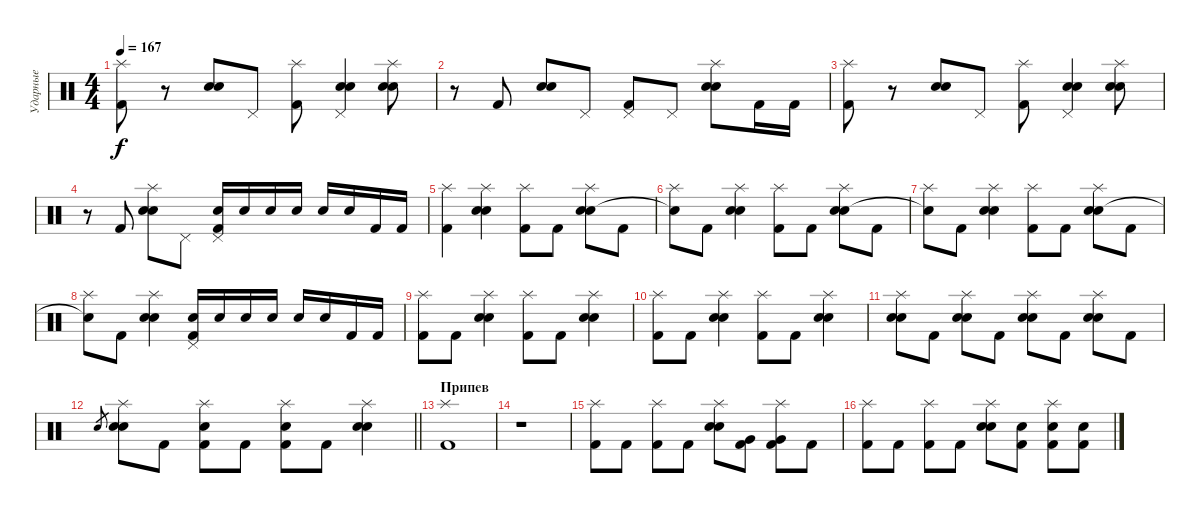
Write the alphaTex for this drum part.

\track ("Ударные" "Ударные") {instrument percussion}
\staff {score}
\articulation defaults
\ts (4 4)
\tempo 167
\clef neutral
\ks c
("Splash (hit)" "Kick (hit) 2").8{dy f} r.8 ("Electric Snare (hit)" "Snare (hit) 2").8 "Pedal Hi-Hat (hit)".8 ("Splash (hit)" "Kick (hit) 2").8 ("Pedal Hi-Hat (hit)" "Electric Snare (hit)" "Snare (hit) 2").4 ("Splash (hit)" "Electric Snare (hit)" "Snare (hit) 2").8 |
r.8 "Kick (hit) 2".8 ("Electric Snare (hit)" "Snare (hit) 2").8 "Pedal Hi-Hat (hit)".8 ("Pedal Hi-Hat (hit)" "Kick (hit) 2").8 "Pedal Hi-Hat (hit)".8 ("Splash (hit)" "Electric Snare (hit)" "Snare (hit) 2").8 "Kick (hit) 2".16 "Kick (hit) 2".16 |
("Splash (hit)" "Kick (hit) 2").8 r.8 ("Electric Snare (hit)" "Snare (hit) 2").8 "Pedal Hi-Hat (hit)".8 ("Splash (hit)" "Kick (hit) 2").8 ("Pedal Hi-Hat (hit)" "Electric Snare (hit)" "Snare (hit) 2").4 ("Splash (hit)" "Electric Snare (hit)" "Snare (hit) 2").8 |
r.8 "Kick (hit) 2".8 ("Splash (hit)" "Electric Snare (hit)" "Snare (hit) 2").8 "Pedal Hi-Hat (hit)".8 ("Pedal Hi-Hat (hit)" "Electric Snare (hit)" "Kick (hit) 2").16 "Electric Snare (hit)".16 "Snare (hit) 2".16 "Snare (hit) 2".16 "Snare (hit) 2".16 "Snare (hit) 2".16 "Kick (hit) 2".16 "Kick (hit) 2".16 |
("Splash (hit)" "Kick (hit) 2").4 ("Splash (hit)" "Electric Snare (hit)" "Snare (hit) 2").4 ("Splash (hit)" "Kick (hit) 2").8 "Kick (hit) 2".8 ("Splash (hit)" "Electric Snare (hit)" "Snare (hit) 2").8 "Kick (hit) 2".8 |
("Splash (hit)" "Snare (hit)"{t}).8 "Kick (hit) 2".8 ("Splash (hit)" "Electric Snare (hit)" "Snare (hit) 2").4 ("Splash (hit)" "Kick (hit) 2").8 "Kick (hit) 2".8 ("Splash (hit)" "Electric Snare (hit)" "Snare (hit) 2").8 "Kick (hit) 2".8 |
("Splash (hit)" "Snare (hit)"{t}).8 "Kick (hit) 2".8 ("Splash (hit)" "Electric Snare (hit)" "Snare (hit) 2").4 ("Splash (hit)" "Kick (hit) 2").8 "Kick (hit) 2".8 ("Splash (hit)" "Electric Snare (hit)" "Snare (hit) 2").8 "Kick (hit) 2".8 |
("Splash (hit)" "Snare (hit)"{t}).8 "Kick (hit) 2".8 ("Splash (hit)" "Electric Snare (hit)" "Snare (hit) 2").4 ("Pedal Hi-Hat (hit)" "Electric Snare (hit)" "Kick (hit) 2").16 "Electric Snare (hit)".16 "Snare (hit) 2".16 "Snare (hit) 2".16 "Snare (hit) 2".16 "Snare (hit) 2".16 "Kick (hit) 2".16 "Kick (hit) 2".16 |
("Splash (hit)" "Kick (hit) 2").8 "Kick (hit) 2".8 ("Splash (hit)" "Electric Snare (hit)" "Snare (hit) 2").4 ("Splash (hit)" "Kick (hit) 2").8 "Kick (hit) 2".8 ("Splash (hit)" "Electric Snare (hit)" "Snare (hit) 2").4 |
("Splash (hit)" "Kick (hit) 2").8 "Kick (hit) 2".8 ("Splash (hit)" "Electric Snare (hit)" "Snare (hit) 2").4 ("Splash (hit)" "Kick (hit) 2").8 "Kick (hit) 2".8 ("Splash (hit)" "Electric Snare (hit)" "Snare (hit) 2").4 |
("Splash (hit)" "Electric Snare (hit)" "Snare (hit) 2").8 "Kick (hit) 2".8 ("Splash (hit)" "Electric Snare (hit)" "Snare (hit) 2").8 "Kick (hit) 2".8 ("Splash (hit)" "Electric Snare (hit)" "Snare (hit) 2").8 "Kick (hit) 2".8 ("Splash (hit)" "Electric Snare (hit)" "Snare (hit) 2").8 "Kick (hit) 2".8 |
\barLineRight lightlight "Electric Snare (hit)".8{gr}
("Splash (hit)" "Electric Snare (hit)" "Snare (hit) 2").8 "Kick (hit) 2".8 ("Splash (hit)" "Snare (hit) 2" "Kick (hit) 2").8 "Kick (hit) 2".8 ("Splash (hit)" "Snare (hit) 2" "Kick (hit) 2").8 "Kick (hit) 2".8 ("Splash (hit)" "Electric Snare (hit)" "Snare (hit) 2").4 |
\section ("" "Припев")
("Splash (hit)" "Kick (hit) 2").1 |
r.1 |
("Splash (hit)" "Kick (hit) 2").8 "Kick (hit) 2".8 ("Splash (hit)" "Kick (hit) 2").8 "Kick (hit) 2".8 ("Splash (hit)" "Electric Snare (hit)" "Snare (hit) 2").8 ("Very Low Tom (hit)" "Kick (hit) 2").8 ("Splash (hit)" "Very Low Tom (hit)" "Kick (hit) 2").8 "Kick (hit) 2".8 |
("Splash (hit)" "Kick (hit) 2").8 "Kick (hit) 2".8 ("Splash (hit)" "Kick (hit) 2").8 "Kick (hit) 2".8 ("Splash (hit)" "Electric Snare (hit)" "Snare (hit) 2").8 ("Electric Snare (hit)" "Kick (hit) 2").8 ("Splash (hit)" "Electric Snare (hit)" "Kick (hit) 2").8 ("Electric Snare (hit)" "Kick (hit) 2").8
